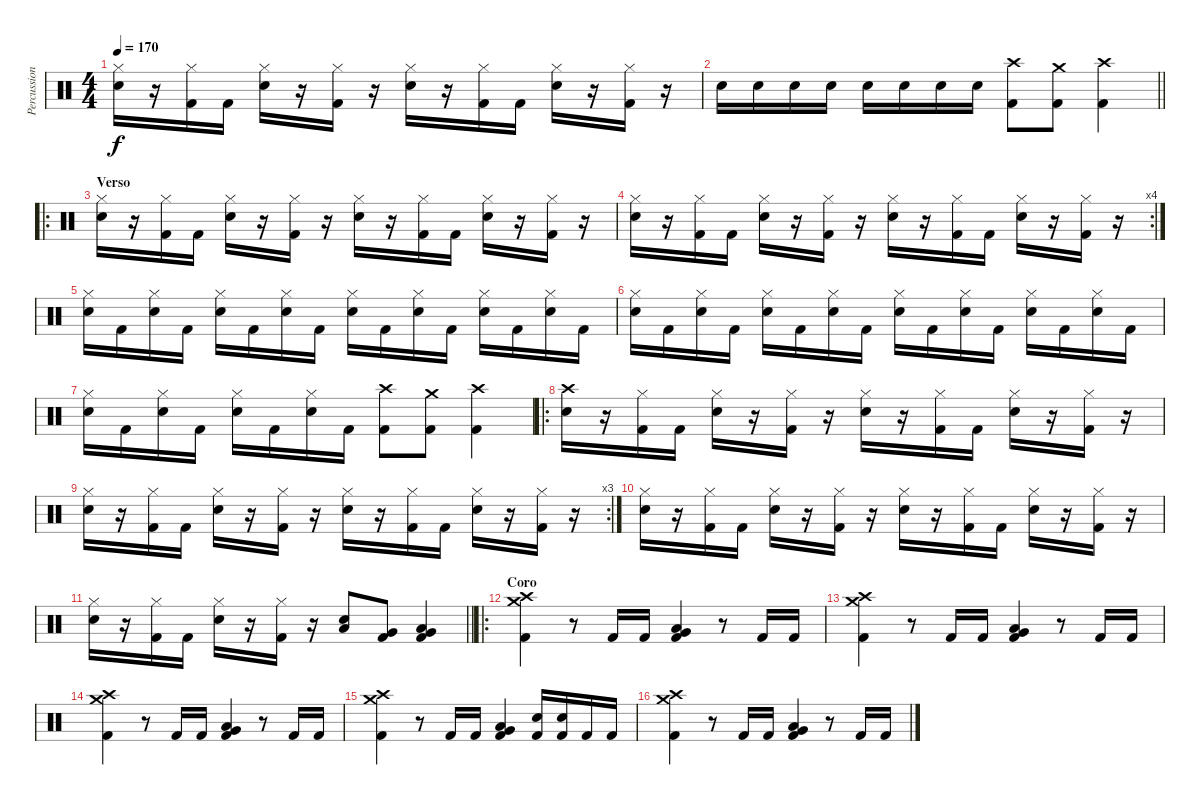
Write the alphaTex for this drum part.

\track ("Percussion" "Percussion") {instrument percussion}
\staff {score}
\articulation defaults
\ts (4 4)
\tempo 170
\clef neutral
\ks c
("Hi-Hat (closed)" "Snare (hit) 2").16{dy f} r.16 ("Hi-Hat (closed)" "Kick (hit) 2").16 "Kick (hit) 2".16 ("Hi-Hat (closed)" "Snare (hit) 2").16 r.16 ("Hi-Hat (closed)" "Kick (hit) 2").16 r.16 ("Hi-Hat (closed)" "Snare (hit) 2").16 r.16 ("Hi-Hat (closed)" "Kick (hit) 2").16 "Kick (hit) 2".16 ("Hi-Hat (closed)" "Snare (hit) 2").16 r.16 ("Hi-Hat (closed)" "Kick (hit) 2").16 r.16 |
\barLineRight lightlight "Snare (hit) 2".16 "Snare (hit) 2".16 "Snare (hit) 2".16 "Snare (hit) 2".16 "Snare (hit) 2".16 "Snare (hit) 2".16 "Snare (hit) 2".16 "Snare (hit) 2".16
("Kick (hit) 2" "Crash high (hit)").8 ("Kick (hit) 2" "Crash medium (hit)").8 ("Kick (hit) 2" "Crash high (hit)").4 |
\ro
\section ("" "Verso")
("Hi-Hat (closed)" "Snare (hit) 2").16 r.16 ("Hi-Hat (closed)" "Kick (hit) 2").16 "Kick (hit) 2".16 ("Hi-Hat (closed)" "Snare (hit) 2").16 r.16 ("Hi-Hat (closed)" "Kick (hit) 2").16 r.16 ("Hi-Hat (closed)" "Snare (hit) 2").16 r.16 ("Hi-Hat (closed)" "Kick (hit) 2").16 "Kick (hit) 2".16 ("Hi-Hat (closed)" "Snare (hit) 2").16 r.16 ("Hi-Hat (closed)" "Kick (hit) 2").16 r.16 |
\rc 4
("Hi-Hat (closed)" "Snare (hit) 2").16 r.16 ("Hi-Hat (closed)" "Kick (hit) 2").16 "Kick (hit) 2".16 ("Hi-Hat (closed)" "Snare (hit) 2").16 r.16 ("Hi-Hat (closed)" "Kick (hit) 2").16 r.16 ("Hi-Hat (closed)" "Snare (hit) 2").16 r.16 ("Hi-Hat (closed)" "Kick (hit) 2").16 "Kick (hit) 2".16 ("Hi-Hat (closed)" "Snare (hit) 2").16 r.16 ("Hi-Hat (closed)" "Kick (hit) 2").16 r.16 |
("Hi-Hat (closed)" "Snare (hit) 2").16 "Kick (hit) 2".16 ("Hi-Hat (closed)" "Snare (hit) 2").16 "Kick (hit) 2".16 ("Hi-Hat (closed)" "Snare (hit) 2").16 "Kick (hit) 2".16 ("Hi-Hat (closed)" "Snare (hit) 2").16 "Kick (hit) 2".16 ("Hi-Hat (closed)" "Snare (hit) 2").16 "Kick (hit) 2".16 ("Hi-Hat (closed)" "Snare (hit) 2").16 "Kick (hit) 2".16 ("Hi-Hat (closed)" "Snare (hit) 2").16 "Kick (hit) 2".16 ("Hi-Hat (closed)" "Snare (hit) 2").16 "Kick (hit) 2".16 |
("Hi-Hat (closed)" "Snare (hit) 2").16 "Kick (hit) 2".16 ("Hi-Hat (closed)" "Snare (hit) 2").16 "Kick (hit) 2".16 ("Hi-Hat (closed)" "Snare (hit) 2").16 "Kick (hit) 2".16 ("Hi-Hat (closed)" "Snare (hit) 2").16 "Kick (hit) 2".16 ("Hi-Hat (closed)" "Snare (hit) 2").16 "Kick (hit) 2".16 ("Hi-Hat (closed)" "Snare (hit) 2").16 "Kick (hit) 2".16 ("Hi-Hat (closed)" "Snare (hit) 2").16 "Kick (hit) 2".16 ("Hi-Hat (closed)" "Snare (hit) 2").16 "Kick (hit) 2".16 |
("Hi-Hat (closed)" "Snare (hit) 2").16 "Kick (hit) 2".16 ("Hi-Hat (closed)" "Snare (hit) 2").16 "Kick (hit) 2".16 ("Hi-Hat (closed)" "Snare (hit) 2").16 "Kick (hit) 2".16 ("Hi-Hat (closed)" "Snare (hit) 2").16 "Kick (hit) 2".16 ("Kick (hit) 2" "Crash high (hit)").8 ("Kick (hit) 2" "Crash medium (hit)").8 ("Kick (hit) 2" "Crash high (hit)").4 |
\ro
("Crash high (hit)" "Snare (hit) 2").16 r.16 ("Hi-Hat (closed)" "Kick (hit) 2").16 "Kick (hit) 2".16 ("Hi-Hat (closed)" "Snare (hit) 2").16 r.16 ("Hi-Hat (closed)" "Kick (hit) 2").16 r.16 ("Hi-Hat (closed)" "Snare (hit) 2").16 r.16 ("Hi-Hat (closed)" "Kick (hit) 2").16 "Kick (hit) 2".16 ("Hi-Hat (closed)" "Snare (hit) 2").16 r.16 ("Hi-Hat (closed)" "Kick (hit) 2").16 r.16 |
\rc 3
("Hi-Hat (closed)" "Snare (hit) 2").16 r.16 ("Hi-Hat (closed)" "Kick (hit) 2").16 "Kick (hit) 2".16 ("Hi-Hat (closed)" "Snare (hit) 2").16 r.16 ("Hi-Hat (closed)" "Kick (hit) 2").16 r.16 ("Hi-Hat (closed)" "Snare (hit) 2").16 r.16 ("Hi-Hat (closed)" "Kick (hit) 2").16 "Kick (hit) 2".16 ("Hi-Hat (closed)" "Snare (hit) 2").16 r.16 ("Hi-Hat (closed)" "Kick (hit) 2").16 r.16 |
("Hi-Hat (closed)" "Snare (hit) 2").16 r.16 ("Hi-Hat (closed)" "Kick (hit) 2").16 "Kick (hit) 2".16 ("Hi-Hat (closed)" "Snare (hit) 2").16 r.16 ("Hi-Hat (closed)" "Kick (hit) 2").16 r.16 ("Hi-Hat (closed)" "Snare (hit) 2").16 r.16 ("Hi-Hat (closed)" "Kick (hit) 2").16 "Kick (hit) 2".16 ("Hi-Hat (closed)" "Snare (hit) 2").16 r.16 ("Hi-Hat (closed)" "Kick (hit) 2").16 r.16 |
\barLineRight lightlight
("Hi-Hat (closed)" "Snare (hit) 2").16 r.16 ("Hi-Hat (closed)" "Kick (hit) 2").16 "Kick (hit) 2".16 ("Hi-Hat (closed)" "Snare (hit) 2").16 r.16 ("Hi-Hat (closed)" "Kick (hit) 2").16 r.16 ("Low Tom (hit)" "Snare (hit) 2").8 ("Very Low Tom (hit)" "Kick (hit) 2").8 ("Very Low Tom (hit)" "Low Floor Tom (hit)" "Kick (hit) 2").4 |
\ro
\section ("" "Coro")
("Crash high (hit)" "Crash medium (hit)" "Kick (hit) 2").4 r.8 "Kick (hit) 2".16 "Kick (hit) 2".16 ("Very Low Tom (hit)" "Low Floor Tom (hit)" "Kick (hit) 2").4 r.8 "Kick (hit) 2".16 "Kick (hit) 2".16 |
("Crash high (hit)" "Crash medium (hit)" "Kick (hit) 2").4 r.8 "Kick (hit) 2".16 "Kick (hit) 2".16 ("Very Low Tom (hit)" "Low Floor Tom (hit)" "Kick (hit) 2").4 r.8 "Kick (hit) 2".16 "Kick (hit) 2".16 |
("Crash high (hit)" "Crash medium (hit)" "Kick (hit) 2").4 r.8 "Kick (hit) 2".16 "Kick (hit) 2".16 ("Very Low Tom (hit)" "Low Floor Tom (hit)" "Kick (hit) 2").4 r.8 "Kick (hit) 2".16 "Kick (hit) 2".16 |
("Crash high (hit)" "Crash medium (hit)" "Kick (hit) 2").4 r.8 "Kick (hit) 2".16 "Kick (hit) 2".16 ("Very Low Tom (hit)" "Low Floor Tom (hit)" "Kick (hit) 2").4 ("Snare (hit) 2" "Kick (hit) 2").16 ("Snare (hit) 2" "Kick (hit) 2").16 "Kick (hit) 2".16 "Kick (hit) 2".16 |
("Crash high (hit)" "Crash medium (hit)" "Kick (hit) 2").4 r.8 "Kick (hit) 2".16 "Kick (hit) 2".16 ("Very Low Tom (hit)" "Low Floor Tom (hit)" "Kick (hit) 2").4 r.8 "Kick (hit) 2".16 "Kick (hit) 2".16
